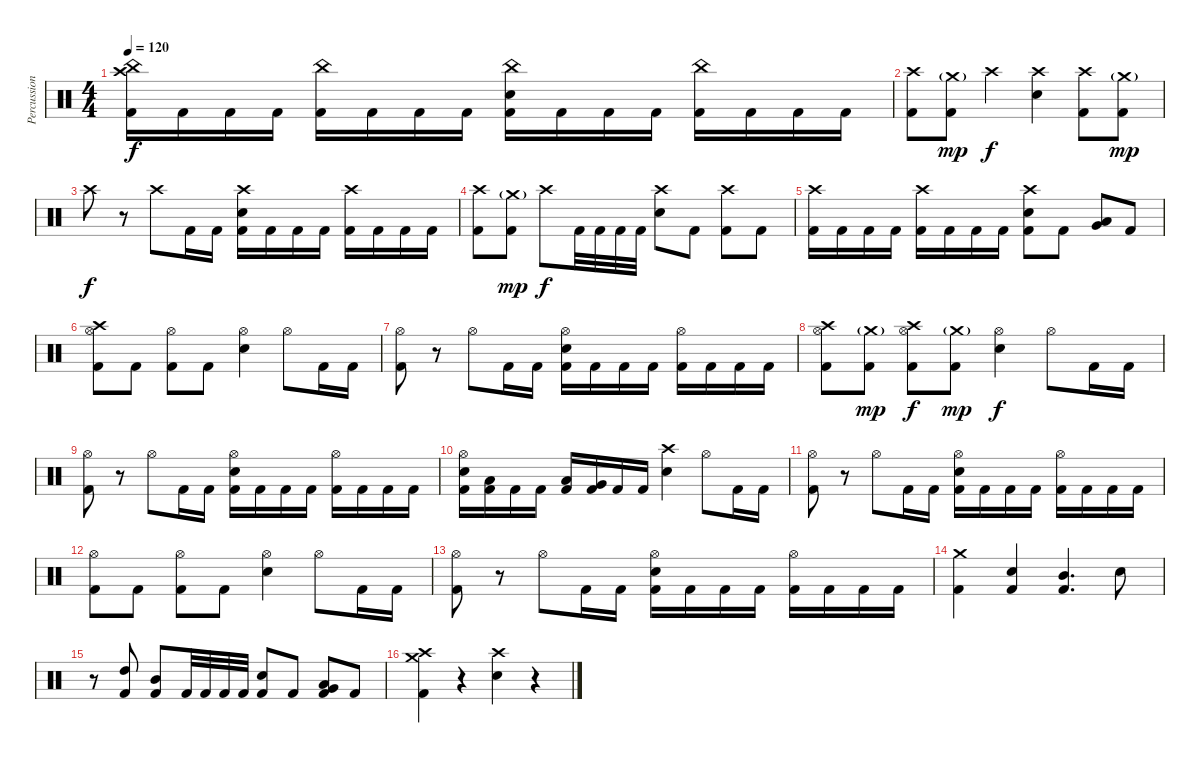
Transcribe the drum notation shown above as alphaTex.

\track ("Percussion" "Percussion") {instrument percussion}
\staff {score}
\articulation defaults
\ts (4 4)
\tempo 120
\clef neutral
\ks c
("China (hit)" "Crash high (hit)" "Kick (hit) 2").16{dy f} "Kick (hit) 2".16 "Kick (hit) 2".16 "Kick (hit) 2".16 ("China (hit)" "Kick (hit) 2").16 "Kick (hit) 2".16 "Kick (hit) 2".16 "Kick (hit) 2".16 ("China (hit)" "Electric Snare (hit)" "Kick (hit) 2").16 "Kick (hit) 2".16 "Kick (hit) 2".16 "Kick (hit) 2".16 ("China (hit)" "Kick (hit) 2").16 "Kick (hit) 2".16 "Kick (hit) 2".16 "Kick (hit) 2".16 |
("Crash high (hit)" "Kick (hit) 2").8 ("Crash medium (hit)"{g} "Kick (hit) 2").8{dy mp} "Crash high (hit)".4{dy f} ("Crash high (hit)" "Electric Snare (hit)").4 ("Crash high (hit)" "Kick (hit) 2").8 ("Crash medium (hit)"{g} "Kick (hit) 2").8{dy mp} |
"Crash high (hit)".8{dy f} r.8 "Crash high (hit)".8 "Kick (hit) 2".16 "Kick (hit) 2".16 ("Crash high (hit)" "Electric Snare (hit)" "Kick (hit) 2").16 "Kick (hit) 2".16 "Kick (hit) 2".16 "Kick (hit) 2".16 ("Crash high (hit)" "Kick (hit) 2").16 "Kick (hit) 2".16 "Kick (hit) 2".16 "Kick (hit) 2".16 |
("Crash high (hit)" "Kick (hit) 2").8 ("Crash medium (hit)"{g} "Kick (hit) 2").8{dy mp} "Crash high (hit)".8{dy f} "Kick (hit) 2".32 "Kick (hit) 2".32 "Kick (hit) 2".32 "Kick (hit) 2".32 ("Crash high (hit)" "Electric Snare (hit)").8 "Kick (hit) 2".8 ("Crash high (hit)" "Kick (hit) 2").8 "Kick (hit) 2".8 |
("Crash high (hit)" "Kick (hit) 2").16 "Kick (hit) 2".16 "Kick (hit) 2".16 "Kick (hit) 2".16 ("Crash high (hit)" "Kick (hit) 2").16 "Kick (hit) 2".16 "Kick (hit) 2".16 "Kick (hit) 2".16 ("Crash high (hit)" "Electric Snare (hit)" "Kick (hit) 2").8 "Kick (hit) 2".8 ("Low Tom (hit)" "Very Low Tom (hit)").8 "Kick (hit) 2".8 |
("Crash high (hit)" "Hi-Hat (open)" "Kick (hit) 2").8 "Kick (hit) 2".8 ("Hi-Hat (open)" "Kick (hit) 2").8 "Kick (hit) 2".8 ("Hi-Hat (open)" "Electric Snare (hit)").4 "Hi-Hat (open)".8 "Kick (hit) 2".16 "Kick (hit) 2".16 |
("Hi-Hat (open)" "Kick (hit) 2").8 r.8 "Hi-Hat (open)".8 "Kick (hit) 2".16 "Kick (hit) 2".16 ("Hi-Hat (open)" "Electric Snare (hit)" "Kick (hit) 2").16 "Kick (hit) 2".16 "Kick (hit) 2".16 "Kick (hit) 2".16 ("Hi-Hat (open)" "Kick (hit) 2").16 "Kick (hit) 2".16 "Kick (hit) 2".16 "Kick (hit) 2".16 |
("Crash high (hit)" "Hi-Hat (open)" "Kick (hit) 2").8 ("Crash medium (hit)"{g} "Kick (hit) 2").8{dy mp} ("Crash high (hit)" "Hi-Hat (open)" "Kick (hit) 2").8{dy f} ("Crash medium (hit)"{g} "Kick (hit) 2").8{dy mp} ("Hi-Hat (open)" "Electric Snare (hit)").4{dy f} "Hi-Hat (open)".8 "Kick (hit) 2".16 "Kick (hit) 2".16 |
("Hi-Hat (open)" "Kick (hit) 2").8 r.8 "Hi-Hat (open)".8 "Kick (hit) 2".16 "Kick (hit) 2".16 ("Hi-Hat (open)" "Electric Snare (hit)" "Kick (hit) 2").16 "Kick (hit) 2".16 "Kick (hit) 2".16 "Kick (hit) 2".16 ("Hi-Hat (open)" "Kick (hit) 2").16 "Kick (hit) 2".16 "Kick (hit) 2".16 "Kick (hit) 2".16 |
("Hi-Hat (open)" "Electric Snare (hit)" "Kick (hit) 2").16 ("Low Floor Tom (hit)" "Kick (hit) 2").16 "Kick (hit) 2".16 "Kick (hit) 2".16 ("Low Tom (hit)" "Kick (hit) 2").16 ("Very Low Tom (hit)" "Kick (hit) 2").16 "Kick (hit) 2".16 "Kick (hit) 2".16 ("Crash high (hit)" "Electric Snare (hit)").4 "Hi-Hat (open)".8 "Kick (hit) 2".16 "Kick (hit) 2".16 |
("Hi-Hat (open)" "Kick (hit) 2").8 r.8 "Hi-Hat (open)".8 "Kick (hit) 2".16 "Kick (hit) 2".16 ("Hi-Hat (open)" "Electric Snare (hit)" "Kick (hit) 2").16 "Kick (hit) 2".16 "Kick (hit) 2".16 "Kick (hit) 2".16 ("Hi-Hat (open)" "Kick (hit) 2").16 "Kick (hit) 2".16 "Kick (hit) 2".16 "Kick (hit) 2".16 |
("Hi-Hat (open)" "Kick (hit) 2").8 "Kick (hit) 2".8 ("Hi-Hat (open)" "Kick (hit) 2").8 "Kick (hit) 2".8 ("Hi-Hat (open)" "Electric Snare (hit)").4 "Hi-Hat (open)".8 "Kick (hit) 2".16 "Kick (hit) 2".16 |
("Hi-Hat (open)" "Kick (hit) 2").8 r.8 "Hi-Hat (open)".8 "Kick (hit) 2".16 "Kick (hit) 2".16 ("Hi-Hat (open)" "Electric Snare (hit)" "Kick (hit) 2").16 "Kick (hit) 2".16 "Kick (hit) 2".16 "Kick (hit) 2".16 ("Hi-Hat (open)" "Kick (hit) 2").16 "Kick (hit) 2".16 "Kick (hit) 2".16 "Kick (hit) 2".16 |
("Crash medium (hit)" "Kick (hit) 2").4 ("Electric Snare (hit)" "Kick (hit) 2").4 ("Mid Tom (hit)" "Kick (hit) 2").4{d} "Electric Snare (hit)".8 |
r.8 ("High Tom (hit)" "Kick (hit) 2").8 ("Mid Tom (hit)" "Kick (hit) 2").8 "Kick (hit) 2".32 "Kick (hit) 2".32 "Kick (hit) 2".32 "Kick (hit) 2".32 ("Electric Snare (hit)" "Kick (hit) 2").8 "Kick (hit) 2".8 ("Very Low Tom (hit)" "Low Tom (hit)" "Kick (hit) 2").8 "Kick (hit) 2".8 |
("Crash medium (hit)" "Crash high (hit)" "Kick (hit) 2").4 r.4 ("Crash high (hit)" "Electric Snare (hit)").4 r.4
